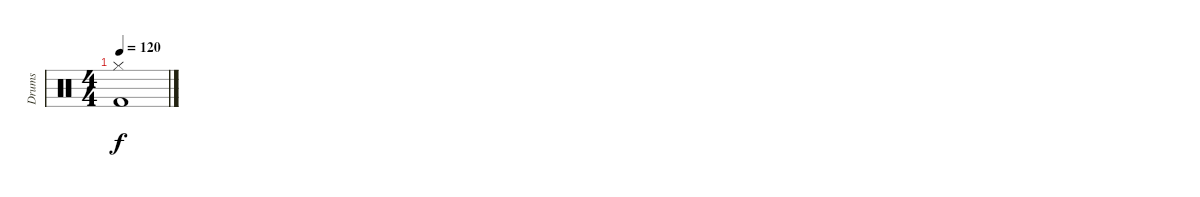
\track ("Drums" "Drums") {instrument percussion}
\staff {score}
\articulation defaults
\ts (4 4)
\tempo 120
\clef neutral
\ks c
("Kick (hit) 2" "Hi-Hat (closed)").1{dy f}
